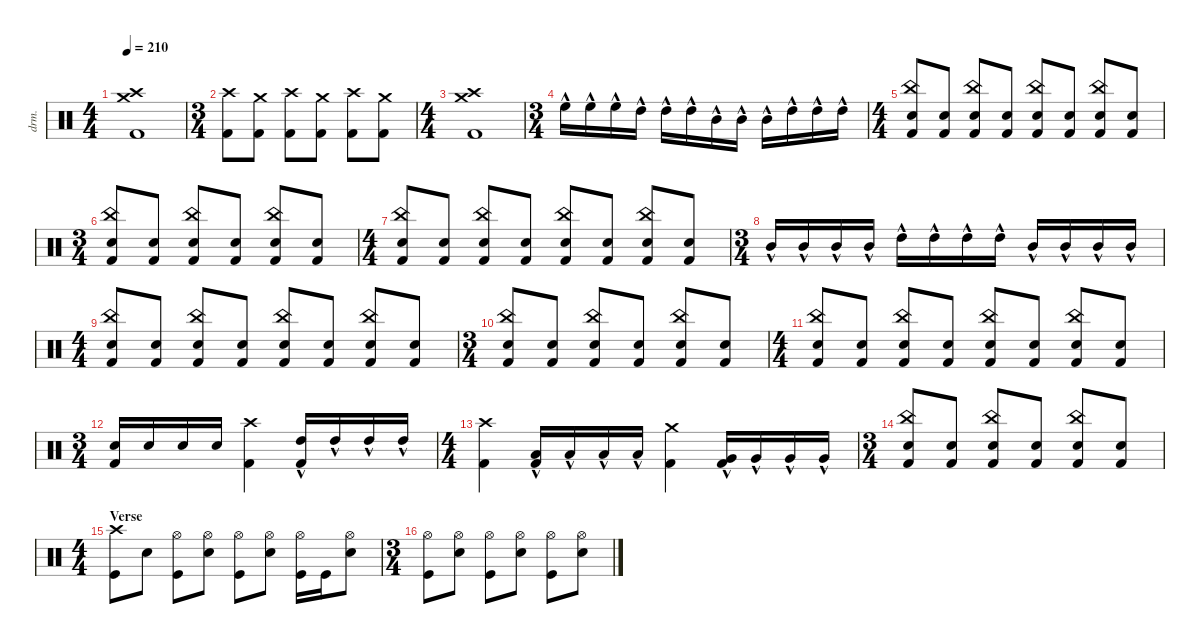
\defaultSystemsLayout 4
\hideDynamics
\bracketExtendMode nobrackets
\otherSystemsTrackNameOrientation horizontal
\track ("Drumkit" "drm.") {instrument percussion}
\staff {score}
\articulation defaults
\ts (4 4)
\beaming (8 2 2 2 2)
\tempo 210
\clef neutral
\ks c
("Kick (hit) 2" "Crash medium (hit)" "Crash high (hit)").1{dy mf beam Down} |
\ts (3 4)
\beaming (8 2 2 2)
("Kick (hit) 2" "Crash high (hit)").8{beam Down} ("Kick (hit) 2" "Crash medium (hit)").8{beam Down} ("Kick (hit) 2" "Crash high (hit)").8{beam Down} ("Kick (hit) 2" "Crash medium (hit)").8{beam Down} ("Kick (hit) 2" "Crash high (hit)").8{beam Down} ("Kick (hit) 2" "Crash medium (hit)").8{beam Down} |
\ts (4 4)
\beaming (8 2 2 2 2)
("Kick (hit) 2" "Crash high (hit)" "Crash medium (hit)").1{beam Down} |
\ts (3 4)
\beaming (8 2 2 2)
"High Floor Tom (hit)"{hac}.16{beam Down} "High Floor Tom (hit)"{hac}.16{beam Down} "High Floor Tom (hit)"{hac}.16{beam Down} "High Tom (hit)"{hac}.16{beam Down} "High Tom (hit)"{hac}.16{beam Down} "High Tom (hit)"{hac}.16{beam Down} "Mid Tom (hit)"{hac}.16{beam Down} "Mid Tom (hit)"{hac}.16{beam Down} "Mid Tom (hit)"{hac}.16{beam Down} "High Tom (hit)"{hac}.16{beam Down} "High Tom (hit)"{hac}.16{beam Down} "High Tom (hit)"{hac}.16{beam Down} |
\ts (4 4)
\beaming (8 2 2 2 2)
("Kick (hit) 2" "Snare (hit) 2" "China (hit)").8{beam Up} ("Snare (hit) 2" "Kick (hit) 2").8{beam Up} ("Kick (hit) 2" "Snare (hit) 2" "China (hit)").8{beam Up} ("Snare (hit) 2" "Kick (hit) 2").8{beam Up} ("Kick (hit) 2" "Snare (hit) 2" "China (hit)").8{beam Up} ("Snare (hit) 2" "Kick (hit) 2").8{beam Up} ("Kick (hit) 2" "Snare (hit) 2" "China (hit)").8{beam Up} ("Snare (hit) 2" "Kick (hit) 2").8{beam Up} |
\ts (3 4)
\beaming (8 2 2 2)
("Kick (hit) 2" "Snare (hit) 2" "China (hit)").8{beam Up} ("Snare (hit) 2" "Kick (hit) 2").8{beam Up} ("Kick (hit) 2" "Snare (hit) 2" "China (hit)").8{beam Up} ("Snare (hit) 2" "Kick (hit) 2").8{beam Up} ("Kick (hit) 2" "Snare (hit) 2" "China (hit)").8{beam Up} ("Snare (hit) 2" "Kick (hit) 2").8{beam Up} |
\ts (4 4)
\beaming (8 2 2 2 2)
("Kick (hit) 2" "Snare (hit) 2" "China (hit)").8{beam Up} ("Snare (hit) 2" "Kick (hit) 2").8{beam Up} ("Kick (hit) 2" "Snare (hit) 2" "China (hit)").8{beam Up} ("Snare (hit) 2" "Kick (hit) 2").8{beam Up} ("Kick (hit) 2" "Snare (hit) 2" "China (hit)").8{beam Up} ("Snare (hit) 2" "Kick (hit) 2").8{beam Up} ("Kick (hit) 2" "Snare (hit) 2" "China (hit)").8{beam Up} ("Snare (hit) 2" "Kick (hit) 2").8{beam Up} |
\ts (3 4)
\beaming (8 2 2 2)
"Mid Tom (hit)"{hac}.16{beam Up} "Mid Tom (hit)"{hac}.16{beam Up} "Mid Tom (hit)"{hac}.16{beam Up} "Mid Tom (hit)"{hac}.16{beam Up} "High Tom (hit)"{hac}.16{beam Down} "High Tom (hit)"{hac}.16{beam Down} "High Tom (hit)"{hac}.16{beam Down} "High Tom (hit)"{hac}.16{beam Down} "Mid Tom (hit)"{hac}.16{beam Up} "Mid Tom (hit)"{hac}.16{beam Up} "Mid Tom (hit)"{hac}.16{beam Up} "Mid Tom (hit)"{hac}.16{beam Up} |
\ts (4 4)
\beaming (8 2 2 2 2)
("Kick (hit) 2" "Snare (hit) 2" "China (hit)").8{beam Up} ("Snare (hit) 2" "Kick (hit) 2").8{beam Up} ("Kick (hit) 2" "Snare (hit) 2" "China (hit)").8{beam Up} ("Snare (hit) 2" "Kick (hit) 2").8{beam Up} ("Kick (hit) 2" "Snare (hit) 2" "China (hit)").8{beam Up} ("Snare (hit) 2" "Kick (hit) 2").8{beam Up} ("Kick (hit) 2" "Snare (hit) 2" "China (hit)").8{beam Up} ("Snare (hit) 2" "Kick (hit) 2").8{beam Up} |
\ts (3 4)
\beaming (8 2 2 2)
("Kick (hit) 2" "Snare (hit) 2" "China (hit)").8{beam Up} ("Snare (hit) 2" "Kick (hit) 2").8{beam Up} ("Kick (hit) 2" "Snare (hit) 2" "China (hit)").8{beam Up} ("Snare (hit) 2" "Kick (hit) 2").8{beam Up} ("Kick (hit) 2" "Snare (hit) 2" "China (hit)").8{beam Up} ("Snare (hit) 2" "Kick (hit) 2").8{beam Up} |
\ts (4 4)
\beaming (8 2 2 2 2)
("Kick (hit) 2" "Snare (hit) 2" "China (hit)").8{beam Up} ("Snare (hit) 2" "Kick (hit) 2").8{beam Up} ("Kick (hit) 2" "Snare (hit) 2" "China (hit)").8{beam Up} ("Snare (hit) 2" "Kick (hit) 2").8{beam Up} ("Kick (hit) 2" "Snare (hit) 2" "China (hit)").8{beam Up} ("Snare (hit) 2" "Kick (hit) 2").8{beam Up} ("Kick (hit) 2" "Snare (hit) 2" "China (hit)").8{beam Up} ("Snare (hit) 2" "Kick (hit) 2").8{beam Up} |
\ts (3 4)
\beaming (8 2 2 2)
("Kick (hit) 2" "Snare (hit) 2").16{beam Up} "Snare (hit) 2".16{beam Up} "Snare (hit) 2".16{beam Up} "Snare (hit) 2".16{beam Up} ("Kick (hit) 2" "Crash high (hit)"{acc #}).4{beam Down} ("Kick (hit) 2" "High Tom (hit)"{hac}).16{beam Up} "High Tom (hit)"{hac}.16{beam Up} "High Tom (hit)"{hac}.16{beam Up} "High Tom (hit)"{hac}.16{beam Up} |
\ts (4 4)
\beaming (8 2 2 2 2)
("Kick (hit) 2" "Crash high (hit)"{acc #}).4{beam Down} ("Kick (hit) 2" "Low Tom (hit)"{hac}).16{beam Up} "Low Tom (hit)"{hac}.16{beam Up} "Low Tom (hit)"{hac}.16{beam Up} "Low Tom (hit)"{hac}.16{beam Up} ("Kick (hit) 2" "Crash medium (hit)").4{beam Down} ("Kick (hit) 2" "Very Low Tom (hit)"{hac}).16{beam Up} "Very Low Tom (hit)"{hac}.16{beam Up} "Very Low Tom (hit)"{hac}.16{beam Up} "Very Low Tom (hit)"{hac}.16{beam Up} |
\ts (3 4)
\beaming (8 2 2 2)
("Snare (hit) 2" "Kick (hit) 2" "China (hit)").8{beam Up} ("Snare (hit) 2" "Kick (hit) 2").8{beam Up} ("Snare (hit) 2" "Kick (hit) 2" "China (hit)").8{beam Up} ("Snare (hit) 2" "Kick (hit) 2").8{beam Up} ("Snare (hit) 2" "Kick (hit) 2" "China (hit)").8{beam Up} ("Snare (hit) 2" "Kick (hit) 2").8{beam Up} |
\ts (4 4)
\beaming (8 2 2 2 2)
\section ("" "Verse")
("Kick (hit)" "Crash high (hit)").8{beam Down} "Snare (hit) 2".8{beam Down} ("Kick (hit)" "Hi-Hat (open)").8{beam Down} ("Snare (hit) 2" "Hi-Hat (open)").8{beam Down} ("Kick (hit)" "Hi-Hat (open)").8{beam Down} ("Snare (hit) 2" "Hi-Hat (open)").8{beam Down} ("Kick (hit)" "Hi-Hat (open)").16{beam Down} "Kick (hit)".16{beam Down} ("Snare (hit) 2" "Hi-Hat (open)").8{beam Down} |
\ts (3 4)
\beaming (8 2 2 2)
("Kick (hit)" "Hi-Hat (open)").8{beam Down} ("Snare (hit) 2" "Hi-Hat (open)").8{beam Down} ("Kick (hit)" "Hi-Hat (open)").8{beam Down} ("Snare (hit) 2" "Hi-Hat (open)").8{beam Down} ("Kick (hit)" "Hi-Hat (open)").8{beam Down} ("Snare (hit) 2" "Hi-Hat (open)").8{beam Down}
